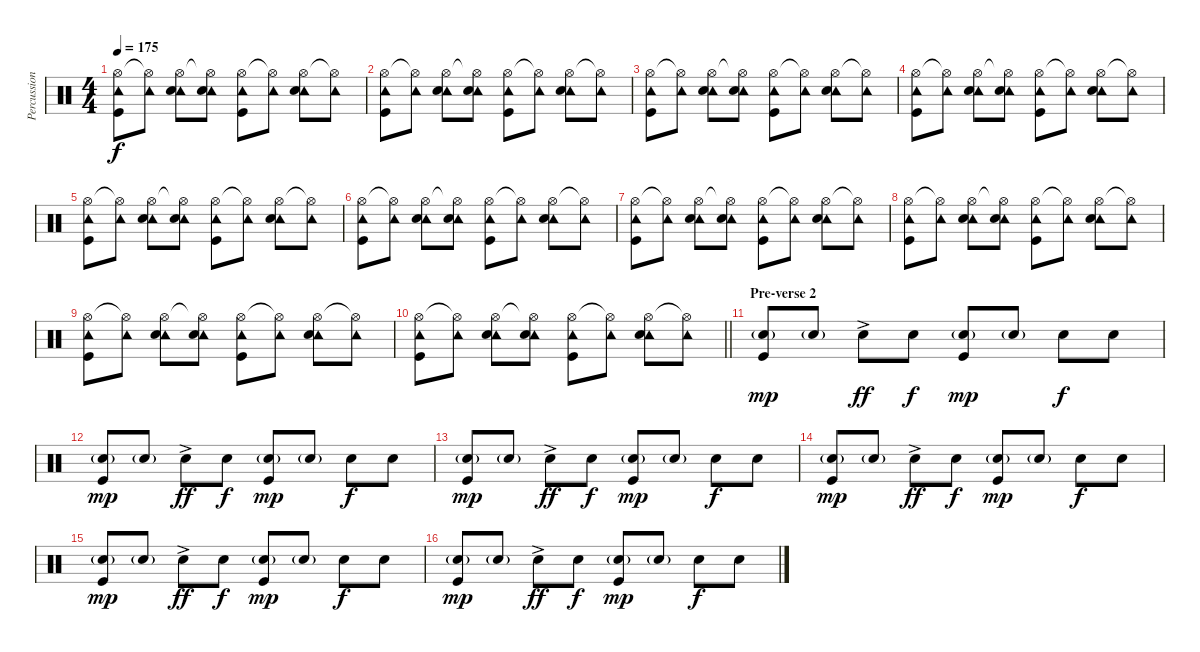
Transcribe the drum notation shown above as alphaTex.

\track ("Percussion" "Percussion") {instrument percussion}
\staff {score}
\articulation defaults
\ts (4 4)
\tempo 175
\clef neutral
\ks c
("Hi-Hat (open)" "Tambourine (hit)" "Kick (hit)").8{dy f} ("Hi-Hat (open)"{t} "Tambourine (hit)").8 ("Hi-Hat (open)" "Tambourine (hit)" "Snare (hit) 2").8 ("Hi-Hat (open)"{t} "Tambourine (hit)" "Snare (hit) 2").8 ("Hi-Hat (open)" "Tambourine (hit)" "Kick (hit)").8 ("Hi-Hat (open)"{t} "Tambourine (hit)").8 ("Hi-Hat (open)" "Tambourine (hit)" "Snare (hit) 2").8 ("Hi-Hat (open)"{t} "Tambourine (hit)").8 |
("Hi-Hat (open)" "Tambourine (hit)" "Kick (hit)").8 ("Hi-Hat (open)"{t} "Tambourine (hit)").8 ("Hi-Hat (open)" "Tambourine (hit)" "Snare (hit) 2").8 ("Hi-Hat (open)"{t} "Tambourine (hit)" "Snare (hit) 2").8 ("Hi-Hat (open)" "Tambourine (hit)" "Kick (hit)").8 ("Hi-Hat (open)"{t} "Tambourine (hit)").8 ("Hi-Hat (open)" "Tambourine (hit)" "Snare (hit) 2").8 ("Hi-Hat (open)"{t} "Tambourine (hit)").8 |
("Hi-Hat (open)" "Tambourine (hit)" "Kick (hit)").8 ("Hi-Hat (open)"{t} "Tambourine (hit)").8 ("Hi-Hat (open)" "Tambourine (hit)" "Snare (hit) 2").8 ("Hi-Hat (open)"{t} "Tambourine (hit)" "Snare (hit) 2").8 ("Hi-Hat (open)" "Tambourine (hit)" "Kick (hit)").8 ("Hi-Hat (open)"{t} "Tambourine (hit)").8 ("Hi-Hat (open)" "Tambourine (hit)" "Snare (hit) 2").8 ("Hi-Hat (open)"{t} "Tambourine (hit)").8 |
("Hi-Hat (open)" "Tambourine (hit)" "Kick (hit)").8 ("Hi-Hat (open)"{t} "Tambourine (hit)").8 ("Hi-Hat (open)" "Tambourine (hit)" "Snare (hit) 2").8 ("Hi-Hat (open)"{t} "Tambourine (hit)" "Snare (hit) 2").8 ("Hi-Hat (open)" "Tambourine (hit)" "Kick (hit)").8 ("Hi-Hat (open)"{t} "Tambourine (hit)").8 ("Hi-Hat (open)" "Tambourine (hit)" "Snare (hit) 2").8 ("Hi-Hat (open)"{t} "Tambourine (hit)").8 |
("Hi-Hat (open)" "Tambourine (hit)" "Kick (hit)").8 ("Hi-Hat (open)"{t} "Tambourine (hit)").8 ("Hi-Hat (open)" "Tambourine (hit)" "Snare (hit) 2").8 ("Hi-Hat (open)"{t} "Tambourine (hit)" "Snare (hit) 2").8 ("Hi-Hat (open)" "Tambourine (hit)" "Kick (hit)").8 ("Hi-Hat (open)"{t} "Tambourine (hit)").8 ("Hi-Hat (open)" "Tambourine (hit)" "Snare (hit) 2").8 ("Hi-Hat (open)"{t} "Tambourine (hit)").8 |
("Hi-Hat (open)" "Tambourine (hit)" "Kick (hit)").8 ("Hi-Hat (open)"{t} "Tambourine (hit)").8 ("Hi-Hat (open)" "Tambourine (hit)" "Snare (hit) 2").8 ("Hi-Hat (open)"{t} "Tambourine (hit)" "Snare (hit) 2").8 ("Hi-Hat (open)" "Tambourine (hit)" "Kick (hit)").8 ("Hi-Hat (open)"{t} "Tambourine (hit)").8 ("Hi-Hat (open)" "Tambourine (hit)" "Snare (hit) 2").8 ("Hi-Hat (open)"{t} "Tambourine (hit)").8 |
("Hi-Hat (open)" "Tambourine (hit)" "Kick (hit)").8 ("Hi-Hat (open)"{t} "Tambourine (hit)").8 ("Hi-Hat (open)" "Tambourine (hit)" "Snare (hit) 2").8 ("Hi-Hat (open)"{t} "Tambourine (hit)" "Snare (hit) 2").8 ("Hi-Hat (open)" "Tambourine (hit)" "Kick (hit)").8 ("Hi-Hat (open)"{t} "Tambourine (hit)").8 ("Hi-Hat (open)" "Tambourine (hit)" "Snare (hit) 2").8 ("Hi-Hat (open)"{t} "Tambourine (hit)").8 |
("Hi-Hat (open)" "Tambourine (hit)" "Kick (hit)").8 ("Hi-Hat (open)"{t} "Tambourine (hit)").8 ("Hi-Hat (open)" "Tambourine (hit)" "Snare (hit) 2").8 ("Hi-Hat (open)"{t} "Tambourine (hit)" "Snare (hit) 2").8 ("Hi-Hat (open)" "Tambourine (hit)" "Kick (hit)").8 ("Hi-Hat (open)"{t} "Tambourine (hit)").8 ("Hi-Hat (open)" "Tambourine (hit)" "Snare (hit) 2").8 ("Hi-Hat (open)"{t} "Tambourine (hit)").8 |
("Hi-Hat (open)" "Tambourine (hit)" "Kick (hit)").8 ("Hi-Hat (open)"{t} "Tambourine (hit)").8 ("Hi-Hat (open)" "Tambourine (hit)" "Snare (hit) 2").8 ("Hi-Hat (open)"{t} "Tambourine (hit)" "Snare (hit) 2").8 ("Hi-Hat (open)" "Tambourine (hit)" "Kick (hit)").8 ("Hi-Hat (open)"{t} "Tambourine (hit)").8 ("Hi-Hat (open)" "Tambourine (hit)" "Snare (hit) 2").8 ("Hi-Hat (open)"{t} "Tambourine (hit)").8 |
\barLineRight lightlight
("Hi-Hat (open)" "Tambourine (hit)" "Kick (hit)").8 ("Hi-Hat (open)"{t} "Tambourine (hit)").8 ("Hi-Hat (open)" "Tambourine (hit)" "Snare (hit) 2").8 ("Hi-Hat (open)"{t} "Tambourine (hit)" "Snare (hit) 2").8 ("Hi-Hat (open)" "Tambourine (hit)" "Kick (hit)").8 ("Hi-Hat (open)"{t} "Tambourine (hit)").8 ("Hi-Hat (open)" "Tambourine (hit)" "Snare (hit) 2").8 ("Hi-Hat (open)"{t} "Tambourine (hit)").8 |
\section ("" "Pre-verse 2")
("Snare (hit) 2"{g} "Kick (hit)").8{dy mp} "Snare (hit) 2"{g}.8 "Snare (hit) 2"{ac}.8{dy ff} "Snare (hit) 2".8{dy f} ("Snare (hit) 2"{g} "Kick (hit)").8{dy mp} "Snare (hit) 2"{g}.8 "Snare (hit) 2".8{dy f} "Snare (hit) 2".8 |
("Snare (hit) 2"{g} "Kick (hit)").8{dy mp} "Snare (hit) 2"{g}.8 "Snare (hit) 2"{ac}.8{dy ff} "Snare (hit) 2".8{dy f} ("Snare (hit) 2"{g} "Kick (hit)").8{dy mp} "Snare (hit) 2"{g}.8 "Snare (hit) 2".8{dy f} "Snare (hit) 2".8 |
("Snare (hit) 2"{g} "Kick (hit)").8{dy mp} "Snare (hit) 2"{g}.8 "Snare (hit) 2"{ac}.8{dy ff} "Snare (hit) 2".8{dy f} ("Snare (hit) 2"{g} "Kick (hit)").8{dy mp} "Snare (hit) 2"{g}.8 "Snare (hit) 2".8{dy f} "Snare (hit) 2".8 |
("Snare (hit) 2"{g} "Kick (hit)").8{dy mp} "Snare (hit) 2"{g}.8 "Snare (hit) 2"{ac}.8{dy ff} "Snare (hit) 2".8{dy f} ("Snare (hit) 2"{g} "Kick (hit)").8{dy mp} "Snare (hit) 2"{g}.8 "Snare (hit) 2".8{dy f} "Snare (hit) 2".8 |
("Snare (hit) 2"{g} "Kick (hit)").8{dy mp} "Snare (hit) 2"{g}.8 "Snare (hit) 2"{ac}.8{dy ff} "Snare (hit) 2".8{dy f} ("Snare (hit) 2"{g} "Kick (hit)").8{dy mp} "Snare (hit) 2"{g}.8 "Snare (hit) 2".8{dy f} "Snare (hit) 2".8 |
("Snare (hit) 2"{g} "Kick (hit)").8{dy mp} "Snare (hit) 2"{g}.8 "Snare (hit) 2"{ac}.8{dy ff} "Snare (hit) 2".8{dy f} ("Snare (hit) 2"{g} "Kick (hit)").8{dy mp} "Snare (hit) 2"{g}.8 "Snare (hit) 2".8{dy f} "Snare (hit) 2".8
